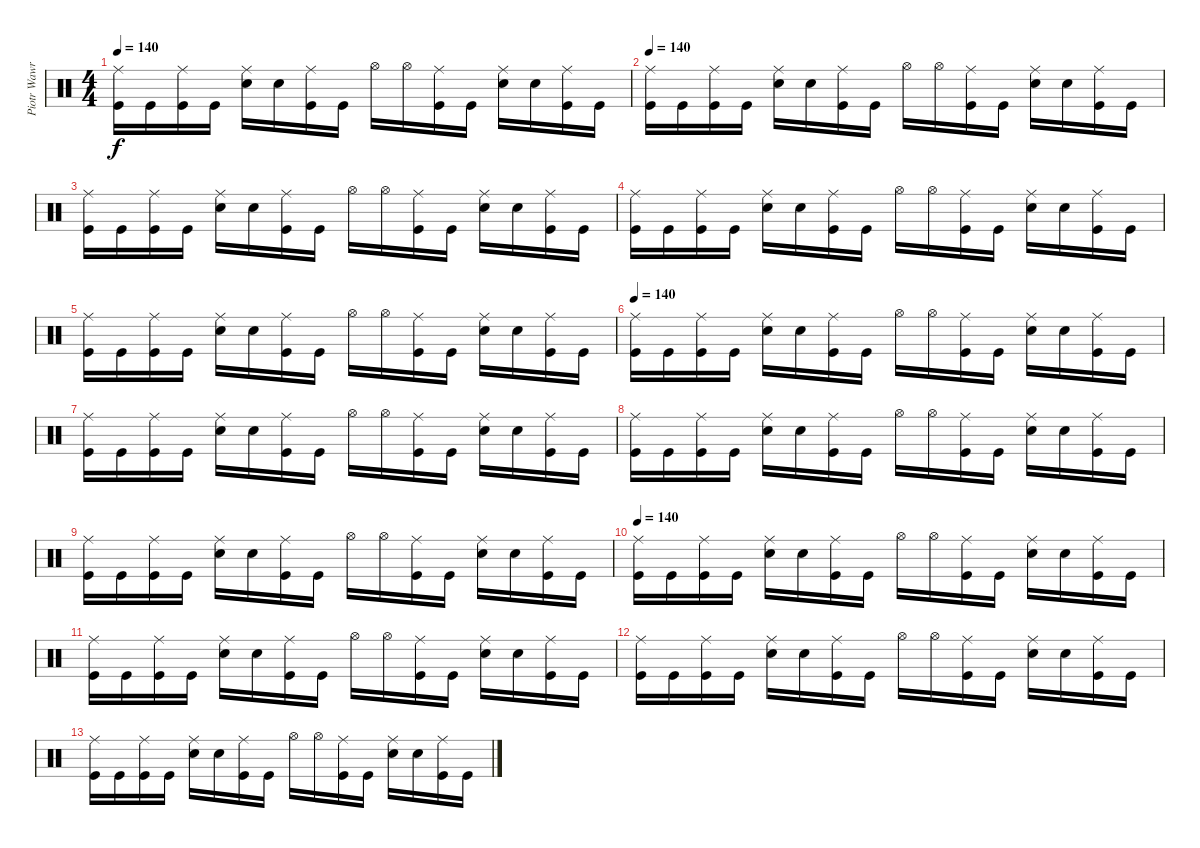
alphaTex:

\track ("Piotr Wawrzeniunk (drums)" "Piotr Wawr") {instrument percussion}
\staff {score}
\articulation defaults
\ts (4 4)
\tempo 140
\clef neutral
\ks c
("Kick (hit)" "Ride (middle)").16{dy f} "Kick (hit)".16 ("Kick (hit)" "Ride (middle)").16 "Kick (hit)".16 ("Electric Snare (hit)" "Ride (middle)").16 "Electric Snare (hit)".16 ("Kick (hit)" "Ride (middle)").16 "Kick (hit)".16 "Hi-Hat (open)".16 "Hi-Hat (open)".16 ("Kick (hit)" "Ride (middle)").16 "Kick (hit)".16 ("Electric Snare (hit)" "Ride (middle)").16 "Electric Snare (hit)".16 ("Kick (hit)" "Ride (middle)").16 "Kick (hit)".16 |
\tempo 140
("Kick (hit)" "Ride (middle)").16 "Kick (hit)".16 ("Kick (hit)" "Ride (middle)").16 "Kick (hit)".16 ("Electric Snare (hit)" "Ride (middle)").16 "Electric Snare (hit)".16 ("Kick (hit)" "Ride (middle)").16 "Kick (hit)".16 "Hi-Hat (open)".16 "Hi-Hat (open)".16 ("Kick (hit)" "Ride (middle)").16 "Kick (hit)".16 ("Electric Snare (hit)" "Ride (middle)").16 "Electric Snare (hit)".16 ("Kick (hit)" "Ride (middle)").16 "Kick (hit)".16 |
("Kick (hit)" "Ride (middle)").16 "Kick (hit)".16 ("Kick (hit)" "Ride (middle)").16 "Kick (hit)".16 ("Electric Snare (hit)" "Ride (middle)").16 "Electric Snare (hit)".16 ("Kick (hit)" "Ride (middle)").16 "Kick (hit)".16 "Hi-Hat (open)".16 "Hi-Hat (open)".16 ("Kick (hit)" "Ride (middle)").16 "Kick (hit)".16 ("Electric Snare (hit)" "Ride (middle)").16 "Electric Snare (hit)".16 ("Kick (hit)" "Ride (middle)").16 "Kick (hit)".16 |
("Kick (hit)" "Ride (middle)").16 "Kick (hit)".16 ("Kick (hit)" "Ride (middle)").16 "Kick (hit)".16 ("Electric Snare (hit)" "Ride (middle)").16 "Electric Snare (hit)".16 ("Kick (hit)" "Ride (middle)").16 "Kick (hit)".16 "Hi-Hat (open)".16 "Hi-Hat (open)".16 ("Kick (hit)" "Ride (middle)").16 "Kick (hit)".16 ("Electric Snare (hit)" "Ride (middle)").16 "Electric Snare (hit)".16 ("Kick (hit)" "Ride (middle)").16 "Kick (hit)".16 |
("Kick (hit)" "Ride (middle)").16 "Kick (hit)".16 ("Kick (hit)" "Ride (middle)").16 "Kick (hit)".16 ("Electric Snare (hit)" "Ride (middle)").16 "Electric Snare (hit)".16 ("Kick (hit)" "Ride (middle)").16 "Kick (hit)".16 "Hi-Hat (open)".16 "Hi-Hat (open)".16 ("Kick (hit)" "Ride (middle)").16 "Kick (hit)".16 ("Electric Snare (hit)" "Ride (middle)").16 "Electric Snare (hit)".16 ("Kick (hit)" "Ride (middle)").16 "Kick (hit)".16 |
\tempo 140
("Kick (hit)" "Ride (middle)").16 "Kick (hit)".16 ("Kick (hit)" "Ride (middle)").16 "Kick (hit)".16 ("Electric Snare (hit)" "Ride (middle)").16 "Electric Snare (hit)".16 ("Kick (hit)" "Ride (middle)").16 "Kick (hit)".16 "Hi-Hat (open)".16 "Hi-Hat (open)".16 ("Kick (hit)" "Ride (middle)").16 "Kick (hit)".16 ("Electric Snare (hit)" "Ride (middle)").16 "Electric Snare (hit)".16 ("Kick (hit)" "Ride (middle)").16 "Kick (hit)".16 |
("Kick (hit)" "Ride (middle)").16 "Kick (hit)".16 ("Kick (hit)" "Ride (middle)").16 "Kick (hit)".16 ("Electric Snare (hit)" "Ride (middle)").16 "Electric Snare (hit)".16 ("Kick (hit)" "Ride (middle)").16 "Kick (hit)".16 "Hi-Hat (open)".16 "Hi-Hat (open)".16 ("Kick (hit)" "Ride (middle)").16 "Kick (hit)".16 ("Electric Snare (hit)" "Ride (middle)").16 "Electric Snare (hit)".16 ("Kick (hit)" "Ride (middle)").16 "Kick (hit)".16 |
("Kick (hit)" "Ride (middle)").16 "Kick (hit)".16 ("Kick (hit)" "Ride (middle)").16 "Kick (hit)".16 ("Electric Snare (hit)" "Ride (middle)").16 "Electric Snare (hit)".16 ("Kick (hit)" "Ride (middle)").16 "Kick (hit)".16 "Hi-Hat (open)".16 "Hi-Hat (open)".16 ("Kick (hit)" "Ride (middle)").16 "Kick (hit)".16 ("Electric Snare (hit)" "Ride (middle)").16 "Electric Snare (hit)".16 ("Kick (hit)" "Ride (middle)").16 "Kick (hit)".16 |
("Kick (hit)" "Ride (middle)").16 "Kick (hit)".16 ("Kick (hit)" "Ride (middle)").16 "Kick (hit)".16 ("Electric Snare (hit)" "Ride (middle)").16 "Electric Snare (hit)".16 ("Kick (hit)" "Ride (middle)").16 "Kick (hit)".16 "Hi-Hat (open)".16 "Hi-Hat (open)".16 ("Kick (hit)" "Ride (middle)").16 "Kick (hit)".16 ("Electric Snare (hit)" "Ride (middle)").16 "Electric Snare (hit)".16 ("Kick (hit)" "Ride (middle)").16 "Kick (hit)".16 |
\tempo 140
("Kick (hit)" "Ride (middle)").16 "Kick (hit)".16 ("Kick (hit)" "Ride (middle)").16 "Kick (hit)".16 ("Electric Snare (hit)" "Ride (middle)").16 "Electric Snare (hit)".16 ("Kick (hit)" "Ride (middle)").16 "Kick (hit)".16 "Hi-Hat (open)".16 "Hi-Hat (open)".16 ("Kick (hit)" "Ride (middle)").16 "Kick (hit)".16 ("Electric Snare (hit)" "Ride (middle)").16 "Electric Snare (hit)".16 ("Kick (hit)" "Ride (middle)").16 "Kick (hit)".16 |
("Kick (hit)" "Ride (middle)").16 "Kick (hit)".16 ("Kick (hit)" "Ride (middle)").16 "Kick (hit)".16 ("Electric Snare (hit)" "Ride (middle)").16 "Electric Snare (hit)".16 ("Kick (hit)" "Ride (middle)").16 "Kick (hit)".16 "Hi-Hat (open)".16 "Hi-Hat (open)".16 ("Kick (hit)" "Ride (middle)").16 "Kick (hit)".16 ("Electric Snare (hit)" "Ride (middle)").16 "Electric Snare (hit)".16 ("Kick (hit)" "Ride (middle)").16 "Kick (hit)".16 |
("Kick (hit)" "Ride (middle)").16 "Kick (hit)".16 ("Kick (hit)" "Ride (middle)").16 "Kick (hit)".16 ("Electric Snare (hit)" "Ride (middle)").16 "Electric Snare (hit)".16 ("Kick (hit)" "Ride (middle)").16 "Kick (hit)".16 "Hi-Hat (open)".16 "Hi-Hat (open)".16 ("Kick (hit)" "Ride (middle)").16 "Kick (hit)".16 ("Electric Snare (hit)" "Ride (middle)").16 "Electric Snare (hit)".16 ("Kick (hit)" "Ride (middle)").16 "Kick (hit)".16 |
("Kick (hit)" "Ride (middle)").16 "Kick (hit)".16 ("Kick (hit)" "Ride (middle)").16 "Kick (hit)".16 ("Electric Snare (hit)" "Ride (middle)").16 "Electric Snare (hit)".16 ("Kick (hit)" "Ride (middle)").16 "Kick (hit)".16 "Hi-Hat (open)".16 "Hi-Hat (open)".16 ("Kick (hit)" "Ride (middle)").16 "Kick (hit)".16 ("Electric Snare (hit)" "Ride (middle)").16 "Electric Snare (hit)".16 ("Kick (hit)" "Ride (middle)").16 "Kick (hit)".16
